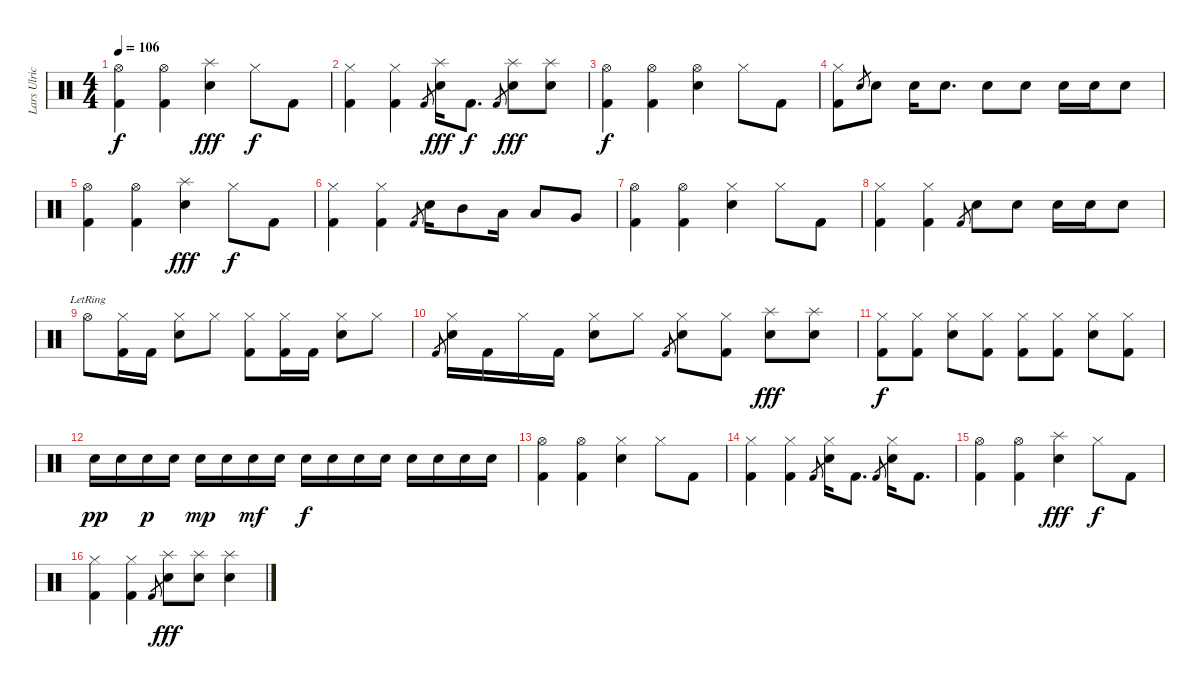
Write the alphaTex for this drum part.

\track ("Lars Ulrich [Drums]" "Lars Ulric") {instrument percussion}
\staff {score}
\articulation defaults
\ts (4 4)
\tempo 106
\clef neutral
\ks c
("Hi-Hat (open)" "Kick (hit) 2").4{dy f} ("Hi-Hat (open)" "Kick (hit) 2").4 ("Splash (hit)" "Electric Snare (hit)").4{dy fff} "Hi-Hat (closed)".8{dy f} "Kick (hit) 2".8 |
("Hi-Hat (closed)" "Kick (hit) 2").4 ("Hi-Hat (closed)" "Kick (hit) 2").4 "Kick (hit) 2".8{gr} ("Splash (hit)" "Electric Snare (hit)").16{dy fff} "Kick (hit) 2".8{d dy f} "Kick (hit) 2".8{gr} ("Splash (hit)" "Electric Snare (hit)").8{dy fff} ("Splash (hit)" "Electric Snare (hit)").8 |
("Hi-Hat (open)" "Kick (hit) 2").4{dy f} ("Hi-Hat (open)" "Kick (hit) 2").4 ("Hi-Hat (open)" "Electric Snare (hit)").4 "Hi-Hat (closed)".8 "Kick (hit) 2".8 |
("Hi-Hat (closed)" "Kick (hit) 2").8 "Electric Snare (hit)".8{gr} "Electric Snare (hit)".8 "Electric Snare (hit)".16 "Electric Snare (hit)".8{d} "Electric Snare (hit)".8 "Electric Snare (hit)".8 "Electric Snare (hit)".16 "Electric Snare (hit)".16 "Electric Snare (hit)".8 |
("Hi-Hat (open)" "Kick (hit) 2").4 ("Hi-Hat (open)" "Kick (hit) 2").4 ("Splash (hit)" "Electric Snare (hit)").4{dy fff} "Hi-Hat (closed)".8{dy f} "Kick (hit) 2".8 |
("Hi-Hat (closed)" "Kick (hit) 2").4 ("Hi-Hat (closed)" "Kick (hit) 2").4 "Kick (hit) 2".8{gr} "Electric Snare (hit)".16 "Mid Tom (hit)".8 "Low Tom (hit)".16 "Low Tom (hit)".8 "Very Low Tom (hit)".8 |
("Hi-Hat (open)" "Kick (hit) 2").4 ("Hi-Hat (open)" "Kick (hit) 2").4 ("Hi-Hat (closed)" "Electric Snare (hit)").4 "Hi-Hat (closed)".8 "Kick (hit) 2".8 |
("Hi-Hat (closed)" "Kick (hit) 2").4 ("Hi-Hat (closed)" "Kick (hit) 2").4 "Kick (hit) 2".8{gr} "Electric Snare (hit)".8 "Electric Snare (hit)".8 "Electric Snare (hit)".16 "Electric Snare (hit)".16 "Electric Snare (hit)".8 |
"Hi-Hat (open)"{lr}.8 ("Hi-Hat (closed)" "Kick (hit) 2").16 "Kick (hit) 2".16 ("Hi-Hat (closed)" "Electric Snare (hit)").8 "Hi-Hat (closed)".8 ("Hi-Hat (closed)" "Kick (hit) 2").8 ("Hi-Hat (closed)" "Kick (hit) 2").16 "Kick (hit) 2".16 ("Hi-Hat (closed)" "Electric Snare (hit)").8 "Hi-Hat (closed)".8 |
"Kick (hit) 2".8{gr} ("Hi-Hat (closed)" "Electric Snare (hit)").16 "Kick (hit) 2".16 "Hi-Hat (closed)".16 "Kick (hit) 2".16 ("Hi-Hat (closed)" "Electric Snare (hit)").8 "Hi-Hat (closed)".8 "Kick (hit) 2".8{gr} ("Hi-Hat (closed)" "Electric Snare (hit)").8 ("Hi-Hat (closed)" "Kick (hit) 2").8 ("Splash (hit)" "Electric Snare (hit)").8{dy fff} ("Splash (hit)" "Electric Snare (hit)").8 |
("Hi-Hat (closed)" "Kick (hit) 2").8{dy f} ("Hi-Hat (closed)" "Kick (hit) 2").8 ("Hi-Hat (closed)" "Electric Snare (hit)").8 ("Hi-Hat (closed)" "Kick (hit) 2").8 ("Hi-Hat (closed)" "Kick (hit) 2").8 ("Hi-Hat (closed)" "Kick (hit) 2").8 ("Hi-Hat (closed)" "Electric Snare (hit)").8 ("Hi-Hat (closed)" "Kick (hit) 2").8 |
"Electric Snare (hit)".16{dy pp} "Electric Snare (hit)".16 "Electric Snare (hit)".16{dy p} "Electric Snare (hit)".16 "Electric Snare (hit)".16{dy mp} "Electric Snare (hit)".16 "Electric Snare (hit)".16{dy mf} "Electric Snare (hit)".16 "Electric Snare (hit)".16{dy f} "Electric Snare (hit)".16 "Electric Snare (hit)".16 "Electric Snare (hit)".16 "Electric Snare (hit)".16 "Electric Snare (hit)".16 "Electric Snare (hit)".16 "Electric Snare (hit)".16 |
("Hi-Hat (open)" "Kick (hit) 2").4 ("Hi-Hat (open)" "Kick (hit) 2").4 ("Hi-Hat (closed)" "Electric Snare (hit)").4 "Hi-Hat (closed)".8 "Kick (hit) 2".8 |
("Hi-Hat (closed)" "Kick (hit) 2").4 ("Hi-Hat (closed)" "Kick (hit) 2").4 "Kick (hit) 2".8{gr} ("Hi-Hat (closed)" "Electric Snare (hit)").16 "Kick (hit) 2".8{d} "Kick (hit) 2".8{gr} ("Hi-Hat (closed)" "Electric Snare (hit)").16 "Kick (hit) 2".8{d} |
("Hi-Hat (open)" "Kick (hit) 2").4 ("Hi-Hat (open)" "Kick (hit) 2").4 ("Splash (hit)" "Electric Snare (hit)").4{dy fff} "Hi-Hat (closed)".8{dy f} "Kick (hit) 2".8 |
("Hi-Hat (closed)" "Kick (hit) 2").4 ("Hi-Hat (closed)" "Kick (hit) 2").4 "Kick (hit) 2".8{gr} ("Splash (hit)" "Electric Snare (hit)").8{dy fff} ("Splash (hit)" "Electric Snare (hit)").8 ("Splash (hit)" "Electric Snare (hit)").4
